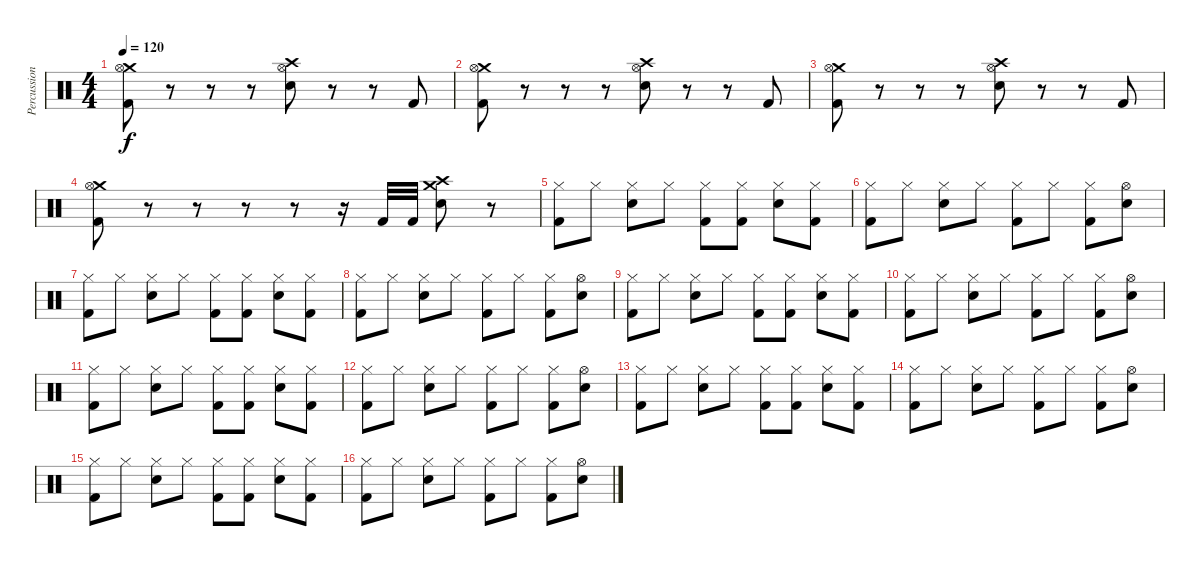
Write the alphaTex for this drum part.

\track ("Percussion" "Percussion") {instrument percussion}
\staff {score}
\articulation defaults
\ts (4 4)
\tempo 120
\clef neutral
\ks c
("Crash medium (hit)" "Hi-Hat (open)" "Kick (hit) 2").8{dy f} r.8 r.8 r.8 ("Crash high (hit)" "Hi-Hat (open)" "Snare (hit) 2").8 r.8 r.8 "Kick (hit) 2".8 |
("Crash medium (hit)" "Hi-Hat (open)" "Kick (hit) 2").8 r.8 r.8 r.8 ("Crash high (hit)" "Hi-Hat (open)" "Snare (hit) 2").8 r.8 r.8 "Kick (hit) 2".8 |
("Crash medium (hit)" "Hi-Hat (open)" "Kick (hit) 2").8 r.8 r.8 r.8 ("Crash high (hit)" "Hi-Hat (open)" "Snare (hit) 2").8 r.8 r.8 "Kick (hit) 2".8 |
("Crash medium (hit)" "Hi-Hat (open)" "Kick (hit) 2").8 r.8 r.8 r.8 r.8 r.16 "Kick (hit) 2".32 "Kick (hit) 2".32 ("Crash medium (hit)" "Crash high (hit)" "Snare (hit) 2").8 r.8 |
("Hi-Hat (closed)" "Kick (hit) 2").8 "Hi-Hat (closed)".8 ("Hi-Hat (closed)" "Snare (hit) 2").8 "Hi-Hat (closed)".8 ("Hi-Hat (closed)" "Kick (hit) 2").8 ("Hi-Hat (closed)" "Kick (hit) 2").8 ("Hi-Hat (closed)" "Snare (hit) 2").8 ("Hi-Hat (closed)" "Kick (hit) 2").8 |
("Hi-Hat (closed)" "Kick (hit) 2").8 "Hi-Hat (closed)".8 ("Hi-Hat (closed)" "Snare (hit) 2").8 "Hi-Hat (closed)".8 ("Hi-Hat (closed)" "Kick (hit) 2").8 "Hi-Hat (closed)".8 ("Hi-Hat (closed)" "Kick (hit) 2").8 ("Hi-Hat (open)" "Snare (hit) 2").8 |
("Hi-Hat (closed)" "Kick (hit) 2").8 "Hi-Hat (closed)".8 ("Hi-Hat (closed)" "Snare (hit) 2").8 "Hi-Hat (closed)".8 ("Hi-Hat (closed)" "Kick (hit) 2").8 ("Hi-Hat (closed)" "Kick (hit) 2").8 ("Hi-Hat (closed)" "Snare (hit) 2").8 ("Hi-Hat (closed)" "Kick (hit) 2").8 |
("Hi-Hat (closed)" "Kick (hit) 2").8 "Hi-Hat (closed)".8 ("Hi-Hat (closed)" "Snare (hit) 2").8 "Hi-Hat (closed)".8 ("Hi-Hat (closed)" "Kick (hit) 2").8 "Hi-Hat (closed)".8 ("Hi-Hat (closed)" "Kick (hit) 2").8 ("Hi-Hat (open)" "Snare (hit) 2").8 |
("Hi-Hat (closed)" "Kick (hit) 2").8 "Hi-Hat (closed)".8 ("Hi-Hat (closed)" "Snare (hit) 2").8 "Hi-Hat (closed)".8 ("Hi-Hat (closed)" "Kick (hit) 2").8 ("Hi-Hat (closed)" "Kick (hit) 2").8 ("Hi-Hat (closed)" "Snare (hit) 2").8 ("Hi-Hat (closed)" "Kick (hit) 2").8 |
("Hi-Hat (closed)" "Kick (hit) 2").8 "Hi-Hat (closed)".8 ("Hi-Hat (closed)" "Snare (hit) 2").8 "Hi-Hat (closed)".8 ("Hi-Hat (closed)" "Kick (hit) 2").8 "Hi-Hat (closed)".8 ("Hi-Hat (closed)" "Kick (hit) 2").8 ("Hi-Hat (open)" "Snare (hit) 2").8 |
("Hi-Hat (closed)" "Kick (hit) 2").8 "Hi-Hat (closed)".8 ("Hi-Hat (closed)" "Snare (hit) 2").8 "Hi-Hat (closed)".8 ("Hi-Hat (closed)" "Kick (hit) 2").8 ("Hi-Hat (closed)" "Kick (hit) 2").8 ("Hi-Hat (closed)" "Snare (hit) 2").8 ("Hi-Hat (closed)" "Kick (hit) 2").8 |
("Hi-Hat (closed)" "Kick (hit) 2").8 "Hi-Hat (closed)".8 ("Hi-Hat (closed)" "Snare (hit) 2").8 "Hi-Hat (closed)".8 ("Hi-Hat (closed)" "Kick (hit) 2").8 "Hi-Hat (closed)".8 ("Hi-Hat (closed)" "Kick (hit) 2").8 ("Hi-Hat (open)" "Snare (hit) 2").8 |
("Hi-Hat (closed)" "Kick (hit) 2").8 "Hi-Hat (closed)".8 ("Hi-Hat (closed)" "Snare (hit) 2").8 "Hi-Hat (closed)".8 ("Hi-Hat (closed)" "Kick (hit) 2").8 ("Hi-Hat (closed)" "Kick (hit) 2").8 ("Hi-Hat (closed)" "Snare (hit) 2").8 ("Hi-Hat (closed)" "Kick (hit) 2").8 |
("Hi-Hat (closed)" "Kick (hit) 2").8 "Hi-Hat (closed)".8 ("Hi-Hat (closed)" "Snare (hit) 2").8 "Hi-Hat (closed)".8 ("Hi-Hat (closed)" "Kick (hit) 2").8 "Hi-Hat (closed)".8 ("Hi-Hat (closed)" "Kick (hit) 2").8 ("Hi-Hat (open)" "Snare (hit) 2").8 |
("Hi-Hat (closed)" "Kick (hit) 2").8 "Hi-Hat (closed)".8 ("Hi-Hat (closed)" "Snare (hit) 2").8 "Hi-Hat (closed)".8 ("Hi-Hat (closed)" "Kick (hit) 2").8 ("Hi-Hat (closed)" "Kick (hit) 2").8 ("Hi-Hat (closed)" "Snare (hit) 2").8 ("Hi-Hat (closed)" "Kick (hit) 2").8 |
("Hi-Hat (closed)" "Kick (hit) 2").8 "Hi-Hat (closed)".8 ("Hi-Hat (closed)" "Snare (hit) 2").8 "Hi-Hat (closed)".8 ("Hi-Hat (closed)" "Kick (hit) 2").8 "Hi-Hat (closed)".8 ("Hi-Hat (closed)" "Kick (hit) 2").8 ("Hi-Hat (open)" "Snare (hit) 2").8
